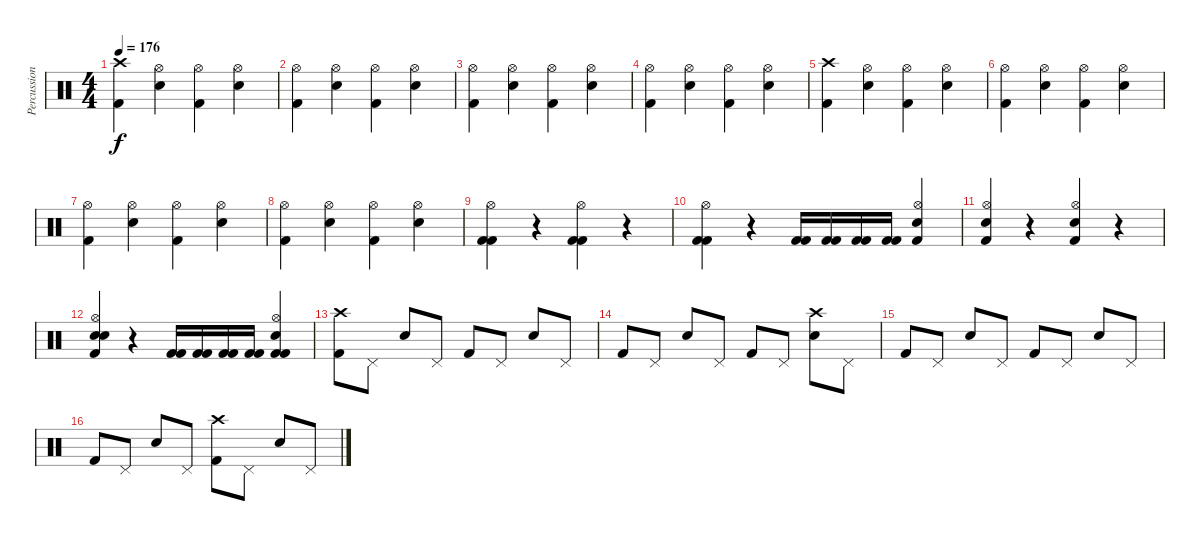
\track ("Percussion" "Percussion") {instrument percussion}
\staff {score}
\articulation defaults
\ts (4 4)
\tempo 176
\clef neutral
\ks c
("Crash high (hit)" "Kick (hit) 2").4{dy f} ("Hi-Hat (open)" "Snare (hit) 2").4 ("Hi-Hat (open)" "Kick (hit) 2").4 ("Hi-Hat (open)" "Snare (hit) 2").4 |
("Hi-Hat (open)" "Kick (hit) 2").4 ("Hi-Hat (open)" "Snare (hit) 2").4 ("Hi-Hat (open)" "Kick (hit) 2").4 ("Hi-Hat (open)" "Snare (hit) 2").4 |
("Hi-Hat (open)" "Kick (hit) 2").4 ("Hi-Hat (open)" "Snare (hit) 2").4 ("Hi-Hat (open)" "Kick (hit) 2").4 ("Hi-Hat (open)" "Snare (hit) 2").4 |
("Hi-Hat (open)" "Kick (hit) 2").4 ("Hi-Hat (open)" "Snare (hit) 2").4 ("Hi-Hat (open)" "Kick (hit) 2").4 ("Hi-Hat (open)" "Snare (hit) 2").4 |
("Crash high (hit)" "Kick (hit) 2").4 ("Hi-Hat (open)" "Snare (hit) 2").4 ("Hi-Hat (open)" "Kick (hit) 2").4 ("Hi-Hat (open)" "Snare (hit) 2").4 |
("Hi-Hat (open)" "Kick (hit) 2").4 ("Hi-Hat (open)" "Snare (hit) 2").4 ("Hi-Hat (open)" "Kick (hit) 2").4 ("Hi-Hat (open)" "Snare (hit) 2").4 |
("Hi-Hat (open)" "Kick (hit) 2").4 ("Hi-Hat (open)" "Snare (hit) 2").4 ("Hi-Hat (open)" "Kick (hit) 2").4 ("Hi-Hat (open)" "Snare (hit) 2").4 |
("Hi-Hat (open)" "Kick (hit) 2").4 ("Hi-Hat (open)" "Snare (hit) 2").4 ("Hi-Hat (open)" "Kick (hit) 2").4 ("Hi-Hat (open)" "Snare (hit) 2").4 |
("Hi-Hat (open)" "Kick (hit) 2" "Kick (hit) 2").4 r.4 ("Hi-Hat (open)" "Kick (hit) 2" "Kick (hit) 2").4 r.4 |
("Hi-Hat (open)" "Kick (hit) 2" "Kick (hit) 2").4 r.4 ("Kick (hit) 2" "Kick (hit) 2").16 ("Kick (hit) 2" "Kick (hit) 2").16 ("Kick (hit) 2" "Kick (hit) 2").16 ("Kick (hit) 2" "Kick (hit) 2").16 ("Hi-Hat (open)" "Kick (hit) 2" "Snare (hit) 2").4 |
("Hi-Hat (open)" "Kick (hit) 2" "Snare (hit) 2").4 r.4 ("Hi-Hat (open)" "Kick (hit) 2" "Snare (hit) 2").4 r.4 |
("Hi-Hat (open)" "Snare (hit) 2" "Snare (hit) 2" "Kick (hit) 2").4 r.4 ("Kick (hit) 2" "Kick (hit) 2").16 ("Kick (hit) 2" "Kick (hit) 2").16 ("Kick (hit) 2" "Kick (hit) 2").16 ("Kick (hit) 2" "Kick (hit) 2").16 ("Hi-Hat (open)" "Kick (hit) 2" "Snare (hit) 2" "Kick (hit) 2").4 |
("Crash high (hit)" "Kick (hit) 2").8 "Pedal Hi-Hat (hit)".8 "Snare (hit) 2".8 "Pedal Hi-Hat (hit)".8 "Kick (hit) 2".8 "Pedal Hi-Hat (hit)".8 "Snare (hit) 2".8 "Pedal Hi-Hat (hit)".8 |
"Kick (hit) 2".8 "Pedal Hi-Hat (hit)".8 "Snare (hit) 2".8 "Pedal Hi-Hat (hit)".8 "Kick (hit) 2".8 "Pedal Hi-Hat (hit)".8 ("Crash high (hit)" "Snare (hit) 2").8 "Pedal Hi-Hat (hit)".8 |
"Kick (hit) 2".8 "Pedal Hi-Hat (hit)".8 "Snare (hit) 2".8 "Pedal Hi-Hat (hit)".8 "Kick (hit) 2".8 "Pedal Hi-Hat (hit)".8 "Snare (hit) 2".8 "Pedal Hi-Hat (hit)".8 |
"Kick (hit) 2".8 "Pedal Hi-Hat (hit)".8 "Snare (hit) 2".8 "Pedal Hi-Hat (hit)".8 ("Crash high (hit)" "Kick (hit) 2").8 "Pedal Hi-Hat (hit)".8 "Snare (hit) 2".8 "Pedal Hi-Hat (hit)".8
